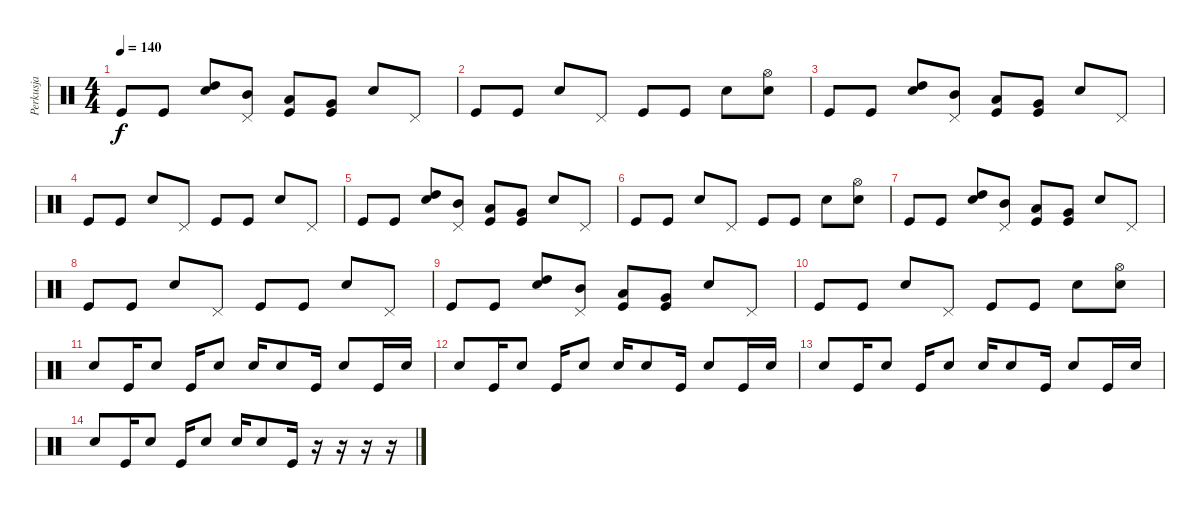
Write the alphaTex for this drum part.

\track ("Perkusja" "Perkusja") {instrument percussion}
\staff {score}
\articulation defaults
\ts (4 4)
\tempo 140
\clef neutral
\ks c "Kick (hit)".8{dy f} "Kick (hit)".8
("Electric Snare (hit)" "High Tom (hit)").8 ("Mid Tom (hit)" "Pedal Hi-Hat (hit)").8 ("Kick (hit)" "Low Tom (hit)").8 ("Kick (hit)" "Very Low Tom (hit)").8 "Electric Snare (hit)".8 "Pedal Hi-Hat (hit)".8 |
"Kick (hit)".8 "Kick (hit)".8 "Electric Snare (hit)".8 "Pedal Hi-Hat (hit)".8 "Kick (hit)".8 "Kick (hit)".8 "Electric Snare (hit)".8 ("Hi-Hat (open)" "Electric Snare (hit)").8 |
"Kick (hit)".8 "Kick (hit)".8 ("Electric Snare (hit)" "High Tom (hit)").8 ("Mid Tom (hit)" "Pedal Hi-Hat (hit)").8 ("Kick (hit)" "Low Tom (hit)").8 ("Kick (hit)" "Very Low Tom (hit)").8 "Electric Snare (hit)".8 "Pedal Hi-Hat (hit)".8 |
"Kick (hit)".8 "Kick (hit)".8 "Electric Snare (hit)".8 "Pedal Hi-Hat (hit)".8 "Kick (hit)".8 "Kick (hit)".8 "Electric Snare (hit)".8 "Pedal Hi-Hat (hit)".8 |
"Kick (hit)".8 "Kick (hit)".8 ("Electric Snare (hit)" "High Tom (hit)").8 ("Mid Tom (hit)" "Pedal Hi-Hat (hit)").8 ("Kick (hit)" "Low Tom (hit)").8 ("Kick (hit)" "Very Low Tom (hit)").8 "Electric Snare (hit)".8 "Pedal Hi-Hat (hit)".8 |
"Kick (hit)".8 "Kick (hit)".8 "Electric Snare (hit)".8 "Pedal Hi-Hat (hit)".8 "Kick (hit)".8 "Kick (hit)".8 "Electric Snare (hit)".8 ("Hi-Hat (open)" "Electric Snare (hit)").8 |
"Kick (hit)".8 "Kick (hit)".8 ("Electric Snare (hit)" "High Tom (hit)").8 ("Mid Tom (hit)" "Pedal Hi-Hat (hit)").8 ("Kick (hit)" "Low Tom (hit)").8 ("Kick (hit)" "Very Low Tom (hit)").8 "Electric Snare (hit)".8 "Pedal Hi-Hat (hit)".8 |
"Kick (hit)".8 "Kick (hit)".8 "Electric Snare (hit)".8 "Pedal Hi-Hat (hit)".8 "Kick (hit)".8 "Kick (hit)".8 "Electric Snare (hit)".8 "Pedal Hi-Hat (hit)".8 |
"Kick (hit)".8 "Kick (hit)".8 ("Electric Snare (hit)" "High Tom (hit)").8 ("Mid Tom (hit)" "Pedal Hi-Hat (hit)").8 ("Kick (hit)" "Low Tom (hit)").8 ("Kick (hit)" "Very Low Tom (hit)").8 "Electric Snare (hit)".8 "Pedal Hi-Hat (hit)".8 |
"Kick (hit)".8 "Kick (hit)".8 "Electric Snare (hit)".8 "Pedal Hi-Hat (hit)".8 "Kick (hit)".8 "Kick (hit)".8 "Electric Snare (hit)".8 ("Hi-Hat (open)" "Electric Snare (hit)").8 |
"Electric Snare (hit)".8 "Kick (hit)".16 "Electric Snare (hit)".8 "Kick (hit)".16 "Electric Snare (hit)".8 "Electric Snare (hit)".16 "Electric Snare (hit)".8 "Kick (hit)".16 "Electric Snare (hit)".8 "Kick (hit)".16 "Electric Snare (hit)".16 |
"Electric Snare (hit)".8 "Kick (hit)".16 "Electric Snare (hit)".8 "Kick (hit)".16 "Electric Snare (hit)".8 "Electric Snare (hit)".16 "Electric Snare (hit)".8 "Kick (hit)".16 "Electric Snare (hit)".8 "Kick (hit)".16 "Electric Snare (hit)".16 |
"Electric Snare (hit)".8 "Kick (hit)".16 "Electric Snare (hit)".8 "Kick (hit)".16 "Electric Snare (hit)".8 "Electric Snare (hit)".16 "Electric Snare (hit)".8 "Kick (hit)".16 "Electric Snare (hit)".8 "Kick (hit)".16 "Electric Snare (hit)".16 |
"Electric Snare (hit)".8 "Kick (hit)".16 "Electric Snare (hit)".8 "Kick (hit)".16 "Electric Snare (hit)".8 "Electric Snare (hit)".16 "Electric Snare (hit)".8 "Kick (hit)".16 r.16 r.16 r.16 r.16
